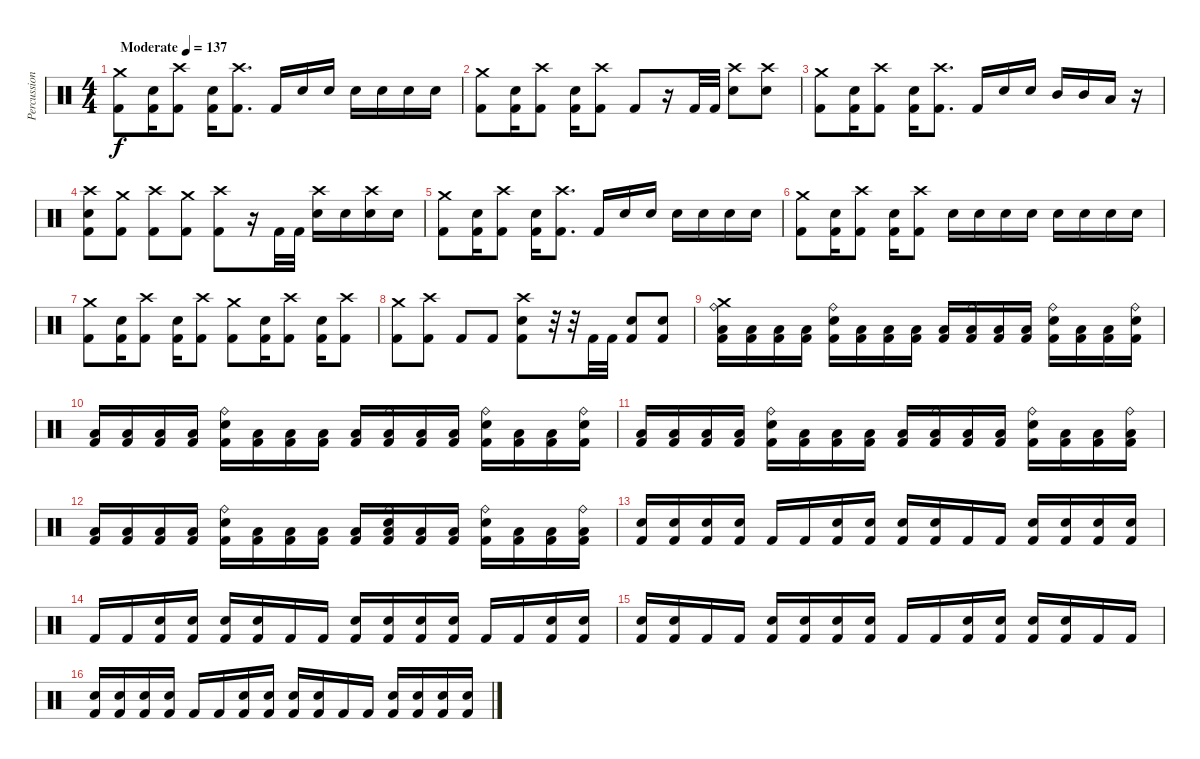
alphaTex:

\track ("Percussion" "Percussion") {instrument percussion}
\staff {score}
\articulation defaults
\ts (4 4)
\tempo (137 "Moderate")
\clef neutral
\ks c
("Crash medium (hit)" "Kick (hit) 2").8{dy f} ("Electric Snare (hit)" "Kick (hit) 2").16 ("Crash high (hit)" "Kick (hit) 2").8 ("Electric Snare (hit)" "Kick (hit) 2").16 ("Crash high (hit)" "Kick (hit) 2").8{d} "Kick (hit) 2".16 "Electric Snare (hit)".16 "Electric Snare (hit)".16 "Electric Snare (hit)".16 "Electric Snare (hit)".16 "Electric Snare (hit)".16 "Electric Snare (hit)".16 |
("Crash medium (hit)" "Kick (hit) 2").8 ("Electric Snare (hit)" "Kick (hit) 2").16 ("Crash high (hit)" "Kick (hit) 2").8 ("Electric Snare (hit)" "Kick (hit) 2").16 ("Crash high (hit)" "Kick (hit) 2").8 "Kick (hit) 2".8 r.16 "Kick (hit) 2".32 "Kick (hit) 2".32 ("Crash high (hit)" "Electric Snare (hit)").8 ("Crash high (hit)" "Electric Snare (hit)").8 |
("Crash medium (hit)" "Kick (hit) 2").8 ("Electric Snare (hit)" "Kick (hit) 2").16 ("Crash high (hit)" "Kick (hit) 2").8 ("Electric Snare (hit)" "Kick (hit) 2").16 ("Crash high (hit)" "Kick (hit) 2").8{d} "Kick (hit) 2".16 "Electric Snare (hit)".16 "Electric Snare (hit)".16 "Mid Tom (hit)".16 "Mid Tom (hit)".16 "Low Tom (hit)".16 r.16 |
("Crash high (hit)" "Electric Snare (hit)" "Kick (hit) 2").8 ("Crash medium (hit)" "Kick (hit) 2").8 ("Crash high (hit)" "Kick (hit) 2").8 ("Crash medium (hit)" "Kick (hit) 2").8 ("Crash high (hit)" "Kick (hit) 2").8 r.16 "Kick (hit) 2".32 "Kick (hit) 2".32 ("Crash high (hit)" "Electric Snare (hit)").16 "Electric Snare (hit)".16 ("Crash high (hit)" "Electric Snare (hit)").16 "Electric Snare (hit)".16 |
("Crash medium (hit)" "Kick (hit) 2").8 ("Electric Snare (hit)" "Kick (hit) 2").16 ("Crash high (hit)" "Kick (hit) 2").8 ("Electric Snare (hit)" "Kick (hit) 2").16 ("Crash high (hit)" "Kick (hit) 2").8{d} "Kick (hit) 2".16 "Electric Snare (hit)".16 "Electric Snare (hit)".16 "Electric Snare (hit)".16 "Electric Snare (hit)".16 "Electric Snare (hit)".16 "Electric Snare (hit)".16 |
("Crash medium (hit)" "Kick (hit) 2").8 ("Electric Snare (hit)" "Kick (hit) 2").16 ("Crash high (hit)" "Kick (hit) 2").8 ("Electric Snare (hit)" "Kick (hit) 2").16 ("Crash high (hit)" "Kick (hit) 2").8 "Electric Snare (hit)".16 "Electric Snare (hit)".16 "Electric Snare (hit)".16 "Electric Snare (hit)".16 "Electric Snare (hit)".16 "Electric Snare (hit)".16 "Electric Snare (hit)".16 "Electric Snare (hit)".16 |
("Crash medium (hit)" "Kick (hit) 2").8 ("Electric Snare (hit)" "Kick (hit) 2").16 ("Crash high (hit)" "Kick (hit) 2").8 ("Electric Snare (hit)" "Kick (hit) 2").16 ("Crash high (hit)" "Kick (hit) 2").8 ("Crash medium (hit)" "Kick (hit) 2").8 ("Electric Snare (hit)" "Kick (hit) 2").16 ("Crash high (hit)" "Kick (hit) 2").8 ("Electric Snare (hit)" "Kick (hit) 2").16 ("Crash high (hit)" "Kick (hit) 2").8 |
("Crash medium (hit)" "Kick (hit) 2").8 ("Crash high (hit)" "Kick (hit) 2").8 "Kick (hit) 2".8 "Kick (hit) 2".8 ("Crash high (hit)" "Electric Snare (hit)" "Kick (hit) 2").8 r.32 r.32 "Kick (hit) 2".32 "Kick (hit) 2".32 ("Electric Snare (hit)" "Kick (hit) 2").8 ("Electric Snare (hit)" "Kick (hit) 2").8 |
("Crash medium (hit)" "Ride (bell)" "Low Floor Tom (hit)" "Kick (hit) 2").16 ("Low Floor Tom (hit)" "Kick (hit) 2").16 ("Low Floor Tom (hit)" "Kick (hit) 2").16 ("Low Floor Tom (hit)" "Kick (hit) 2").16 ("Ride (bell)" "Electric Snare (hit)" "Kick (hit) 2").16 ("Low Floor Tom (hit)" "Kick (hit) 2").16 ("Low Floor Tom (hit)" "Kick (hit) 2").16 ("Low Floor Tom (hit)" "Kick (hit) 2").16 ("Low Floor Tom (hit)" "Kick (hit) 2").16 ("Ride (bell)" "Low Floor Tom (hit)" "Kick (hit) 2").16 ("Low Floor Tom (hit)" "Kick (hit) 2").16 ("Low Floor Tom (hit)" "Kick (hit) 2").16 ("Ride (bell)" "Electric Snare (hit)" "Kick (hit) 2").16 ("Low Floor Tom (hit)" "Kick (hit) 2").16 ("Low Floor Tom (hit)" "Kick (hit) 2").16 ("Ride (bell)" "Electric Snare (hit)" "Kick (hit) 2").16 |
("Low Floor Tom (hit)" "Kick (hit) 2").16 ("Low Floor Tom (hit)" "Kick (hit) 2").16 ("Low Floor Tom (hit)" "Kick (hit) 2").16 ("Low Floor Tom (hit)" "Kick (hit) 2").16 ("Ride (bell)" "Electric Snare (hit)" "Kick (hit) 2").16 ("Low Floor Tom (hit)" "Kick (hit) 2").16 ("Low Floor Tom (hit)" "Kick (hit) 2").16 ("Low Floor Tom (hit)" "Kick (hit) 2").16 ("Low Floor Tom (hit)" "Kick (hit) 2").16 ("Ride (bell)" "Low Floor Tom (hit)" "Kick (hit) 2").16 ("Low Floor Tom (hit)" "Kick (hit) 2").16 ("Low Floor Tom (hit)" "Kick (hit) 2").16 ("Ride (bell)" "Electric Snare (hit)" "Kick (hit) 2").16 ("Low Floor Tom (hit)" "Kick (hit) 2").16 ("Low Floor Tom (hit)" "Kick (hit) 2").16 ("Ride (bell)" "Electric Snare (hit)" "Kick (hit) 2").16 |
("Low Floor Tom (hit)" "Kick (hit) 2").16 ("Low Floor Tom (hit)" "Kick (hit) 2").16 ("Low Floor Tom (hit)" "Kick (hit) 2").16 ("Low Floor Tom (hit)" "Kick (hit) 2").16 ("Ride (bell)" "Electric Snare (hit)" "Kick (hit) 2").16 ("Low Floor Tom (hit)" "Kick (hit) 2").16 ("Low Floor Tom (hit)" "Kick (hit) 2").16 ("Low Floor Tom (hit)" "Kick (hit) 2").16 ("Low Floor Tom (hit)" "Kick (hit) 2").16 ("Ride (bell)" "Low Floor Tom (hit)" "Kick (hit) 2").16 ("Low Floor Tom (hit)" "Kick (hit) 2").16 ("Low Floor Tom (hit)" "Kick (hit) 2").16 ("Ride (bell)" "Electric Snare (hit)" "Kick (hit) 2").16 ("Low Floor Tom (hit)" "Kick (hit) 2").16 ("Low Floor Tom (hit)" "Kick (hit) 2").16 ("Ride (bell)" "Low Floor Tom (hit)" "Kick (hit) 2").16 |
("Low Floor Tom (hit)" "Kick (hit) 2").16 ("Low Floor Tom (hit)" "Kick (hit) 2").16 ("Low Floor Tom (hit)" "Kick (hit) 2").16 ("Low Floor Tom (hit)" "Kick (hit) 2").16 ("Ride (bell)" "Electric Snare (hit)" "Kick (hit) 2").16 ("Low Floor Tom (hit)" "Kick (hit) 2").16 ("Low Floor Tom (hit)" "Kick (hit) 2").16 ("Low Floor Tom (hit)" "Kick (hit) 2").16 ("Low Floor Tom (hit)" "Kick (hit) 2").16 ("Ride (bell)" "Electric Snare (hit)" "Low Floor Tom (hit)" "Kick (hit) 2").16 ("Low Floor Tom (hit)" "Kick (hit) 2").16 ("Low Floor Tom (hit)" "Kick (hit) 2").16 ("Ride (bell)" "Electric Snare (hit)" "Kick (hit) 2").16 ("Low Floor Tom (hit)" "Kick (hit) 2").16 ("Low Floor Tom (hit)" "Kick (hit) 2").16 ("Ride (bell)" "Low Floor Tom (hit)" "Kick (hit) 2").16 |
("Electric Snare (hit)" "Kick (hit) 2").16 ("Electric Snare (hit)" "Kick (hit) 2").16 ("Electric Snare (hit)" "Kick (hit) 2").16 ("Electric Snare (hit)" "Kick (hit) 2").16 "Kick (hit) 2".16 "Kick (hit) 2".16 ("Electric Snare (hit)" "Kick (hit) 2").16 ("Electric Snare (hit)" "Kick (hit) 2").16 ("Electric Snare (hit)" "Kick (hit) 2").16 ("Electric Snare (hit)" "Kick (hit) 2").16 "Kick (hit) 2".16 "Kick (hit) 2".16 ("Electric Snare (hit)" "Kick (hit) 2").16 ("Electric Snare (hit)" "Kick (hit) 2").16 ("Electric Snare (hit)" "Kick (hit) 2").16 ("Electric Snare (hit)" "Kick (hit) 2").16 |
"Kick (hit) 2".16 "Kick (hit) 2".16 ("Electric Snare (hit)" "Kick (hit) 2").16 ("Electric Snare (hit)" "Kick (hit) 2").16 ("Electric Snare (hit)" "Kick (hit) 2").16 ("Electric Snare (hit)" "Kick (hit) 2").16 "Kick (hit) 2".16 "Kick (hit) 2".16 ("Electric Snare (hit)" "Kick (hit) 2").16 ("Electric Snare (hit)" "Kick (hit) 2").16 ("Electric Snare (hit)" "Kick (hit) 2").16 ("Electric Snare (hit)" "Kick (hit) 2").16 "Kick (hit) 2".16 "Kick (hit) 2".16 ("Electric Snare (hit)" "Kick (hit) 2").16 ("Electric Snare (hit)" "Kick (hit) 2").16 |
("Electric Snare (hit)" "Kick (hit) 2").16 ("Electric Snare (hit)" "Kick (hit) 2").16 "Kick (hit) 2".16 "Kick (hit) 2".16 ("Electric Snare (hit)" "Kick (hit) 2").16 ("Electric Snare (hit)" "Kick (hit) 2").16 ("Electric Snare (hit)" "Kick (hit) 2").16 ("Electric Snare (hit)" "Kick (hit) 2").16 "Kick (hit) 2".16 "Kick (hit) 2".16 ("Electric Snare (hit)" "Kick (hit) 2").16 ("Electric Snare (hit)" "Kick (hit) 2").16 ("Electric Snare (hit)" "Kick (hit) 2").16 ("Electric Snare (hit)" "Kick (hit) 2").16 "Kick (hit) 2".16 "Kick (hit) 2".16 |
("Electric Snare (hit)" "Kick (hit) 2").16 ("Electric Snare (hit)" "Kick (hit) 2").16 ("Electric Snare (hit)" "Kick (hit) 2").16 ("Electric Snare (hit)" "Kick (hit) 2").16 "Kick (hit) 2".16 "Kick (hit) 2".16 ("Electric Snare (hit)" "Kick (hit) 2").16 ("Electric Snare (hit)" "Kick (hit) 2").16 ("Electric Snare (hit)" "Kick (hit) 2").16 ("Electric Snare (hit)" "Kick (hit) 2").16 "Kick (hit) 2".16 "Kick (hit) 2".16 ("Electric Snare (hit)" "Kick (hit) 2").16 ("Electric Snare (hit)" "Kick (hit) 2").16 ("Electric Snare (hit)" "Kick (hit) 2").16 ("Electric Snare (hit)" "Kick (hit) 2").16
